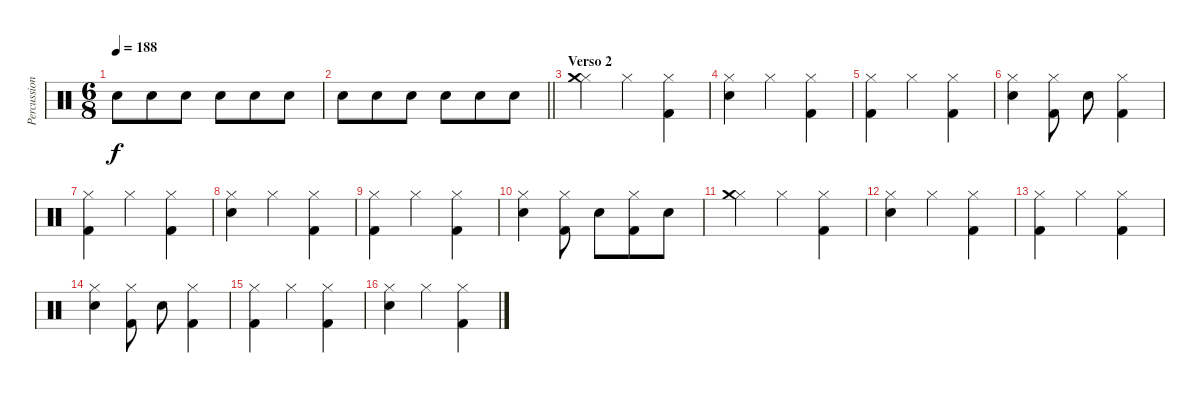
\track ("Percussion" "Percussion") {instrument percussion}
\staff {score}
\articulation defaults
\ts (6 8)
\tempo 188
\clef neutral
\ks c "Snare (hit) 2".8{dy f} "Snare (hit) 2".8 "Snare (hit) 2".8 "Snare (hit) 2".8 "Snare (hit) 2".8 "Snare (hit) 2".8
|
\barLineRight lightlight "Snare (hit) 2".8 "Snare (hit) 2".8 "Snare (hit) 2".8 "Snare (hit) 2".8 "Snare (hit) 2".8 "Snare (hit) 2".8
|
\section ("" "Verso 2")
("Hi-Hat (closed)" "Crash medium (hit)").4 "Hi-Hat (closed)".4 ("Hi-Hat (closed)" "Kick (hit) 2").4 |
("Hi-Hat (closed)" "Snare (hit) 2").4 "Hi-Hat (closed)".4 ("Hi-Hat (closed)" "Kick (hit) 2").4 |
("Hi-Hat (closed)" "Kick (hit) 2").4 "Hi-Hat (closed)".4 ("Hi-Hat (closed)" "Kick (hit) 2").4 |
("Hi-Hat (closed)" "Snare (hit) 2").4 ("Hi-Hat (closed)" "Kick (hit) 2").8 "Electric Snare (hit)".8 ("Hi-Hat (closed)" "Kick (hit) 2").4 |
("Hi-Hat (closed)" "Kick (hit) 2").4 "Hi-Hat (closed)".4 ("Hi-Hat (closed)" "Kick (hit) 2").4 |
("Hi-Hat (closed)" "Snare (hit) 2").4 "Hi-Hat (closed)".4 ("Hi-Hat (closed)" "Kick (hit) 2").4 |
("Hi-Hat (closed)" "Kick (hit) 2").4 "Hi-Hat (closed)".4 ("Hi-Hat (closed)" "Kick (hit) 2").4 |
("Hi-Hat (closed)" "Snare (hit) 2").4 ("Hi-Hat (closed)" "Kick (hit) 2").8 "Electric Snare (hit)".8 ("Hi-Hat (closed)" "Kick (hit) 2").8 "Electric Snare (hit)".8 |
("Hi-Hat (closed)" "Crash medium (hit)").4 "Hi-Hat (closed)".4 ("Hi-Hat (closed)" "Kick (hit) 2").4 |
("Hi-Hat (closed)" "Snare (hit) 2").4 "Hi-Hat (closed)".4 ("Hi-Hat (closed)" "Kick (hit) 2").4 |
("Hi-Hat (closed)" "Kick (hit) 2").4 "Hi-Hat (closed)".4 ("Hi-Hat (closed)" "Kick (hit) 2").4 |
("Hi-Hat (closed)" "Snare (hit) 2").4 ("Hi-Hat (closed)" "Kick (hit) 2").8 "Electric Snare (hit)".8 ("Hi-Hat (closed)" "Kick (hit) 2").4 |
("Hi-Hat (closed)" "Kick (hit) 2").4 "Hi-Hat (closed)".4 ("Hi-Hat (closed)" "Kick (hit) 2").4 |
("Hi-Hat (closed)" "Snare (hit) 2").4 "Hi-Hat (closed)".4 ("Hi-Hat (closed)" "Kick (hit) 2").4
